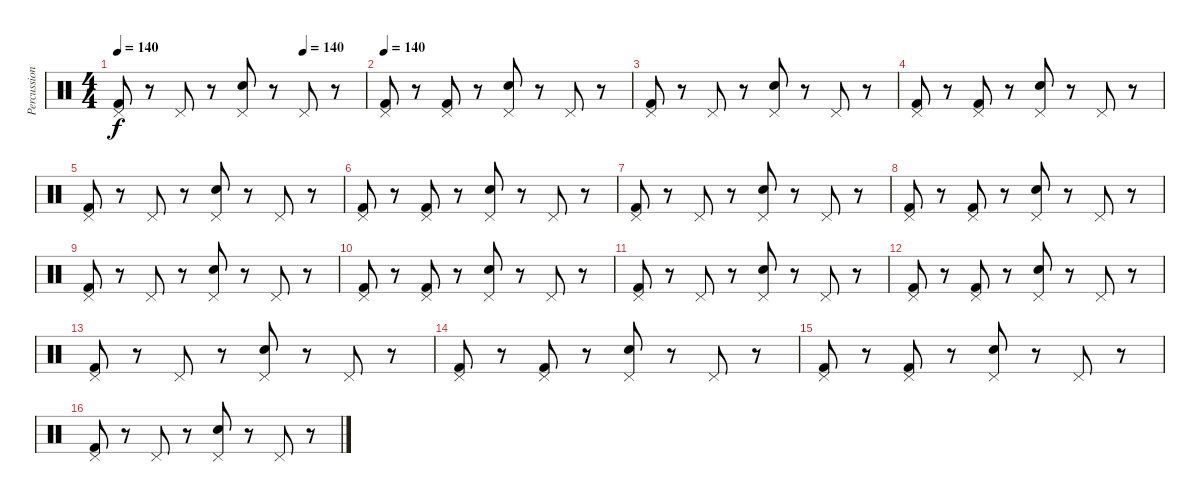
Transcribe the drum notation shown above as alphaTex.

\track ("Percussion" "Percussion") {instrument percussion}
\staff {score}
\articulation defaults
\ts (4 4)
\tempo 140
\tempo (140 0.75)
\clef neutral
\ks c
("Kick (hit) 2" "Pedal Hi-Hat (hit)").8{dy f} r.8 "Pedal Hi-Hat (hit)".8 r.8 ("Electric Snare (hit)" "Pedal Hi-Hat (hit)").8 r.8 "Pedal Hi-Hat (hit)".8 r.8 |
\tempo 140
("Kick (hit) 2" "Pedal Hi-Hat (hit)").8 r.8 ("Kick (hit) 2" "Pedal Hi-Hat (hit)").8 r.8 ("Electric Snare (hit)" "Pedal Hi-Hat (hit)").8 r.8 "Pedal Hi-Hat (hit)".8 r.8 |
("Kick (hit) 2" "Pedal Hi-Hat (hit)").8 r.8 "Pedal Hi-Hat (hit)".8 r.8 ("Electric Snare (hit)" "Pedal Hi-Hat (hit)").8 r.8 "Pedal Hi-Hat (hit)".8 r.8 |
("Kick (hit) 2" "Pedal Hi-Hat (hit)").8 r.8 ("Kick (hit) 2" "Pedal Hi-Hat (hit)").8 r.8 ("Electric Snare (hit)" "Pedal Hi-Hat (hit)").8 r.8 "Pedal Hi-Hat (hit)".8 r.8 |
("Kick (hit) 2" "Pedal Hi-Hat (hit)").8 r.8 "Pedal Hi-Hat (hit)".8 r.8 ("Electric Snare (hit)" "Pedal Hi-Hat (hit)").8 r.8 "Pedal Hi-Hat (hit)".8 r.8 |
("Kick (hit) 2" "Pedal Hi-Hat (hit)").8 r.8 ("Kick (hit) 2" "Pedal Hi-Hat (hit)").8 r.8 ("Electric Snare (hit)" "Pedal Hi-Hat (hit)").8 r.8 "Pedal Hi-Hat (hit)".8 r.8 |
("Kick (hit) 2" "Pedal Hi-Hat (hit)").8 r.8 "Pedal Hi-Hat (hit)".8 r.8 ("Electric Snare (hit)" "Pedal Hi-Hat (hit)").8 r.8 "Pedal Hi-Hat (hit)".8 r.8 |
("Kick (hit) 2" "Pedal Hi-Hat (hit)").8 r.8 ("Kick (hit) 2" "Pedal Hi-Hat (hit)").8 r.8 ("Electric Snare (hit)" "Pedal Hi-Hat (hit)").8 r.8 "Pedal Hi-Hat (hit)".8 r.8 |
("Kick (hit) 2" "Pedal Hi-Hat (hit)").8 r.8 "Pedal Hi-Hat (hit)".8 r.8 ("Electric Snare (hit)" "Pedal Hi-Hat (hit)").8 r.8 "Pedal Hi-Hat (hit)".8 r.8 |
("Kick (hit) 2" "Pedal Hi-Hat (hit)").8 r.8 ("Kick (hit) 2" "Pedal Hi-Hat (hit)").8 r.8 ("Electric Snare (hit)" "Pedal Hi-Hat (hit)").8 r.8 "Pedal Hi-Hat (hit)".8 r.8 |
("Kick (hit) 2" "Pedal Hi-Hat (hit)").8 r.8 "Pedal Hi-Hat (hit)".8 r.8 ("Electric Snare (hit)" "Pedal Hi-Hat (hit)").8 r.8 "Pedal Hi-Hat (hit)".8 r.8 |
("Kick (hit) 2" "Pedal Hi-Hat (hit)").8 r.8 ("Kick (hit) 2" "Pedal Hi-Hat (hit)").8 r.8 ("Electric Snare (hit)" "Pedal Hi-Hat (hit)").8 r.8 "Pedal Hi-Hat (hit)".8 r.8 |
("Kick (hit) 2" "Pedal Hi-Hat (hit)").8 r.8 "Pedal Hi-Hat (hit)".8 r.8 ("Electric Snare (hit)" "Pedal Hi-Hat (hit)").8 r.8 "Pedal Hi-Hat (hit)".8 r.8 |
("Kick (hit) 2" "Pedal Hi-Hat (hit)").8 r.8 ("Kick (hit) 2" "Pedal Hi-Hat (hit)").8 r.8 ("Electric Snare (hit)" "Pedal Hi-Hat (hit)").8 r.8 "Pedal Hi-Hat (hit)".8 r.8 |
("Kick (hit) 2" "Pedal Hi-Hat (hit)").8 r.8 ("Kick (hit) 2" "Pedal Hi-Hat (hit)").8 r.8 ("Electric Snare (hit)" "Pedal Hi-Hat (hit)").8 r.8 "Pedal Hi-Hat (hit)".8 r.8 |
("Kick (hit) 2" "Pedal Hi-Hat (hit)").8 r.8 "Pedal Hi-Hat (hit)".8 r.8 ("Electric Snare (hit)" "Pedal Hi-Hat (hit)").8 r.8 "Pedal Hi-Hat (hit)".8 r.8
